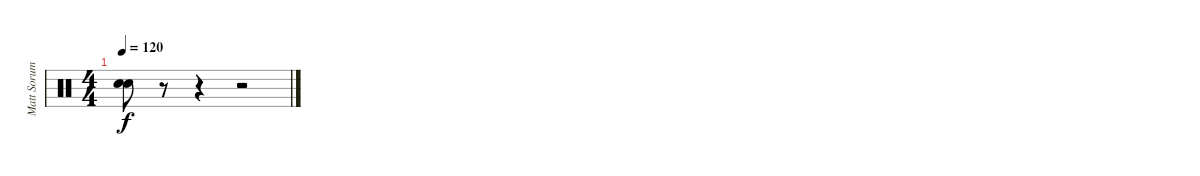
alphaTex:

\track ("Matt Sorum" "Matt Sorum") {instrument percussion}
\staff {score}
\articulation defaults
\ts (4 4)
\tempo 120
\clef neutral
\ks c
("Snare (hit)"{t} "Snare (hit)"{t}).8{dy f} r.8 r.4 r.2
